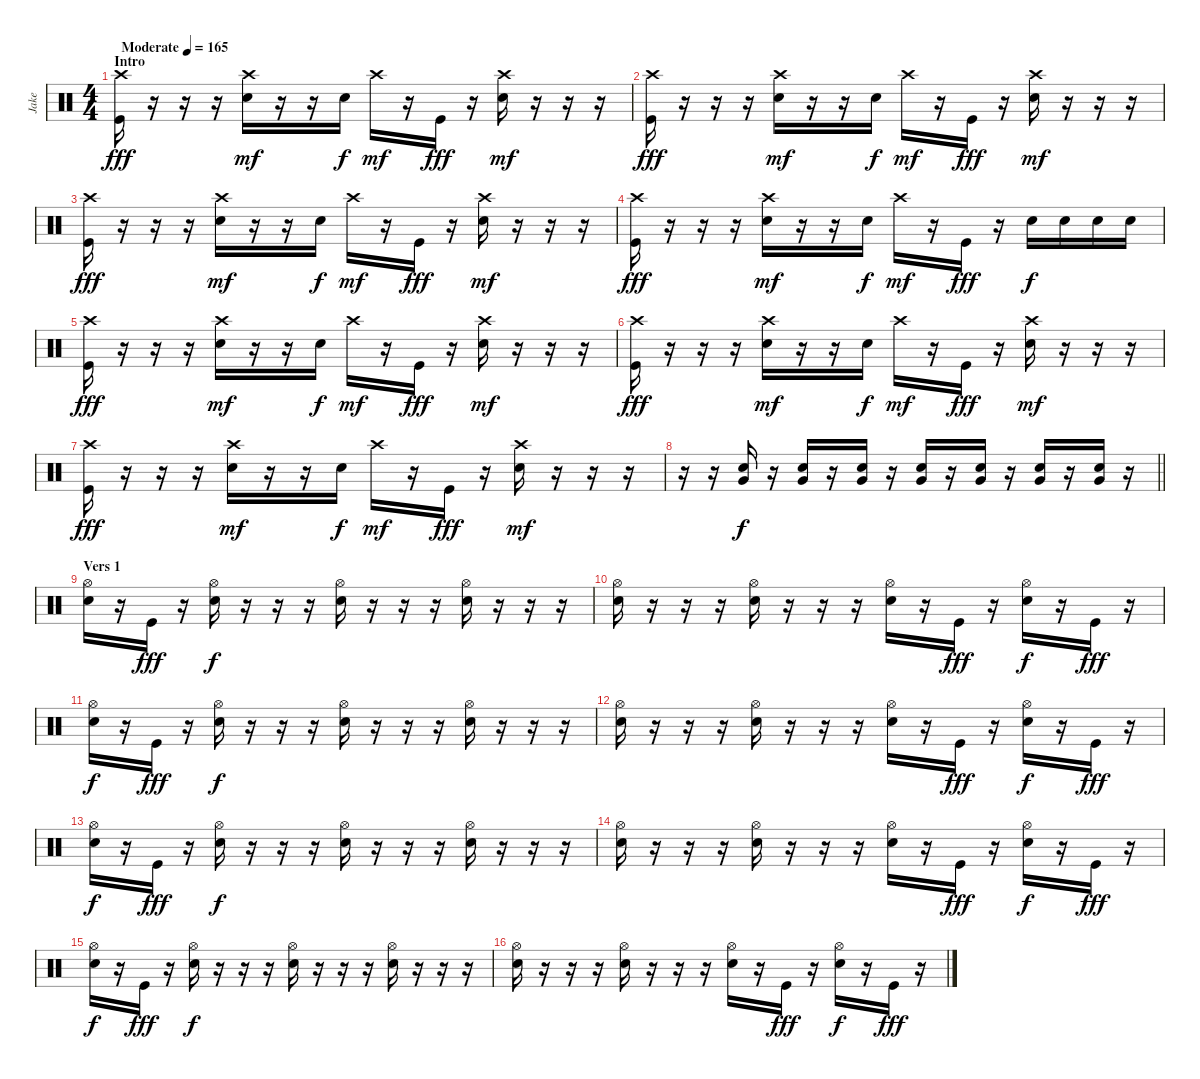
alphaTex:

\track ("Jake" "Jake") {instrument percussion}
\staff {score}
\articulation defaults
\ts (4 4)
\section ("" "Intro")
\tempo (165 "Moderate")
\clef neutral
\ks c
("Crash high (hit)" "Kick (hit)").16{dy fff} r.16 r.16 r.16 ("Crash high (hit)" "Electric Snare (hit)").16{dy mf} r.16 r.16 "Electric Snare (hit)".16{dy f} "Crash high (hit)".16{dy mf} r.16 "Kick (hit)".16{dy fff} r.16 ("Crash high (hit)" "Electric Snare (hit)").16{dy mf} r.16 r.16 r.16 |
("Crash high (hit)" "Kick (hit)").16{dy fff} r.16 r.16 r.16 ("Crash high (hit)" "Electric Snare (hit)").16{dy mf} r.16 r.16 "Electric Snare (hit)".16{dy f} "Crash high (hit)".16{dy mf} r.16 "Kick (hit)".16{dy fff} r.16 ("Crash high (hit)" "Electric Snare (hit)").16{dy mf} r.16 r.16 r.16 |
("Crash high (hit)" "Kick (hit)").16{dy fff} r.16 r.16 r.16 ("Crash high (hit)" "Electric Snare (hit)").16{dy mf} r.16 r.16 "Electric Snare (hit)".16{dy f} "Crash high (hit)".16{dy mf} r.16 "Kick (hit)".16{dy fff} r.16 ("Crash high (hit)" "Electric Snare (hit)").16{dy mf} r.16 r.16 r.16 |
("Crash high (hit)" "Kick (hit)").16{dy fff} r.16 r.16 r.16 ("Crash high (hit)" "Electric Snare (hit)").16{dy mf} r.16 r.16 "Electric Snare (hit)".16{dy f} "Crash high (hit)".16{dy mf} r.16 "Kick (hit)".16{dy fff} r.16 "Electric Snare (hit)".16{dy f} "Electric Snare (hit)".16 "Electric Snare (hit)".16 "Electric Snare (hit)".16 |
("Crash high (hit)" "Kick (hit)").16{dy fff} r.16 r.16 r.16 ("Crash high (hit)" "Electric Snare (hit)").16{dy mf} r.16 r.16 "Electric Snare (hit)".16{dy f} "Crash high (hit)".16{dy mf} r.16 "Kick (hit)".16{dy fff} r.16 ("Crash high (hit)" "Electric Snare (hit)").16{dy mf} r.16 r.16 r.16 |
("Crash high (hit)" "Kick (hit)").16{dy fff} r.16 r.16 r.16 ("Crash high (hit)" "Electric Snare (hit)").16{dy mf} r.16 r.16 "Electric Snare (hit)".16{dy f} "Crash high (hit)".16{dy mf} r.16 "Kick (hit)".16{dy fff} r.16 ("Crash high (hit)" "Electric Snare (hit)").16{dy mf} r.16 r.16 r.16 |
("Crash high (hit)" "Kick (hit)").16{dy fff} r.16 r.16 r.16 ("Crash high (hit)" "Electric Snare (hit)").16{dy mf} r.16 r.16 "Electric Snare (hit)".16{dy f} "Crash high (hit)".16{dy mf} r.16 "Kick (hit)".16{dy fff} r.16 ("Crash high (hit)" "Electric Snare (hit)").16{dy mf} r.16 r.16 r.16 |
\barLineRight lightlight
r.16 r.16 ("Very Low Tom (hit)" "Electric Snare (hit)").16{dy f} r.16 ("Very Low Tom (hit)" "Electric Snare (hit)").16 r.16 ("Very Low Tom (hit)" "Electric Snare (hit)").16 r.16 ("Very Low Tom (hit)" "Electric Snare (hit)").16 r.16 ("Very Low Tom (hit)" "Electric Snare (hit)").16 r.16 ("Very Low Tom (hit)" "Electric Snare (hit)").16 r.16 ("Very Low Tom (hit)" "Electric Snare (hit)").16 r.16 |
\section ("" "Vers 1")
("Hi-Hat (open)" "Electric Snare (hit)").16 r.16 "Kick (hit)".16{dy fff} r.16 ("Hi-Hat (open)" "Electric Snare (hit)").16{dy f} r.16 r.16 r.16 ("Hi-Hat (open)" "Electric Snare (hit)").16 r.16 r.16 r.16 ("Hi-Hat (open)" "Electric Snare (hit)").16 r.16 r.16 r.16 |
("Hi-Hat (open)" "Electric Snare (hit)").16 r.16 r.16 r.16 ("Hi-Hat (open)" "Electric Snare (hit)").16 r.16 r.16 r.16 ("Hi-Hat (open)" "Electric Snare (hit)").16 r.16 "Kick (hit)".16{dy fff} r.16 ("Hi-Hat (open)" "Electric Snare (hit)").16{dy f} r.16 "Kick (hit)".16{dy fff} r.16 |
("Hi-Hat (open)" "Electric Snare (hit)").16{dy f} r.16 "Kick (hit)".16{dy fff} r.16 ("Hi-Hat (open)" "Electric Snare (hit)").16{dy f} r.16 r.16 r.16 ("Hi-Hat (open)" "Electric Snare (hit)").16 r.16 r.16 r.16 ("Hi-Hat (open)" "Electric Snare (hit)").16 r.16 r.16 r.16 |
("Hi-Hat (open)" "Electric Snare (hit)").16 r.16 r.16 r.16 ("Hi-Hat (open)" "Electric Snare (hit)").16 r.16 r.16 r.16 ("Hi-Hat (open)" "Electric Snare (hit)").16 r.16 "Kick (hit)".16{dy fff} r.16 ("Hi-Hat (open)" "Electric Snare (hit)").16{dy f} r.16 "Kick (hit)".16{dy fff} r.16 |
("Hi-Hat (open)" "Electric Snare (hit)").16{dy f} r.16 "Kick (hit)".16{dy fff} r.16 ("Hi-Hat (open)" "Electric Snare (hit)").16{dy f} r.16 r.16 r.16 ("Hi-Hat (open)" "Electric Snare (hit)").16 r.16 r.16 r.16 ("Hi-Hat (open)" "Electric Snare (hit)").16 r.16 r.16 r.16 |
("Hi-Hat (open)" "Electric Snare (hit)").16 r.16 r.16 r.16 ("Hi-Hat (open)" "Electric Snare (hit)").16 r.16 r.16 r.16 ("Hi-Hat (open)" "Electric Snare (hit)").16 r.16 "Kick (hit)".16{dy fff} r.16 ("Hi-Hat (open)" "Electric Snare (hit)").16{dy f} r.16 "Kick (hit)".16{dy fff} r.16 |
("Hi-Hat (open)" "Electric Snare (hit)").16{dy f} r.16 "Kick (hit)".16{dy fff} r.16 ("Hi-Hat (open)" "Electric Snare (hit)").16{dy f} r.16 r.16 r.16 ("Hi-Hat (open)" "Electric Snare (hit)").16 r.16 r.16 r.16 ("Hi-Hat (open)" "Electric Snare (hit)").16 r.16 r.16 r.16 |
("Hi-Hat (open)" "Electric Snare (hit)").16 r.16 r.16 r.16 ("Hi-Hat (open)" "Electric Snare (hit)").16 r.16 r.16 r.16 ("Hi-Hat (open)" "Electric Snare (hit)").16 r.16 "Kick (hit)".16{dy fff} r.16 ("Hi-Hat (open)" "Electric Snare (hit)").16{dy f} r.16 "Kick (hit)".16{dy fff} r.16
